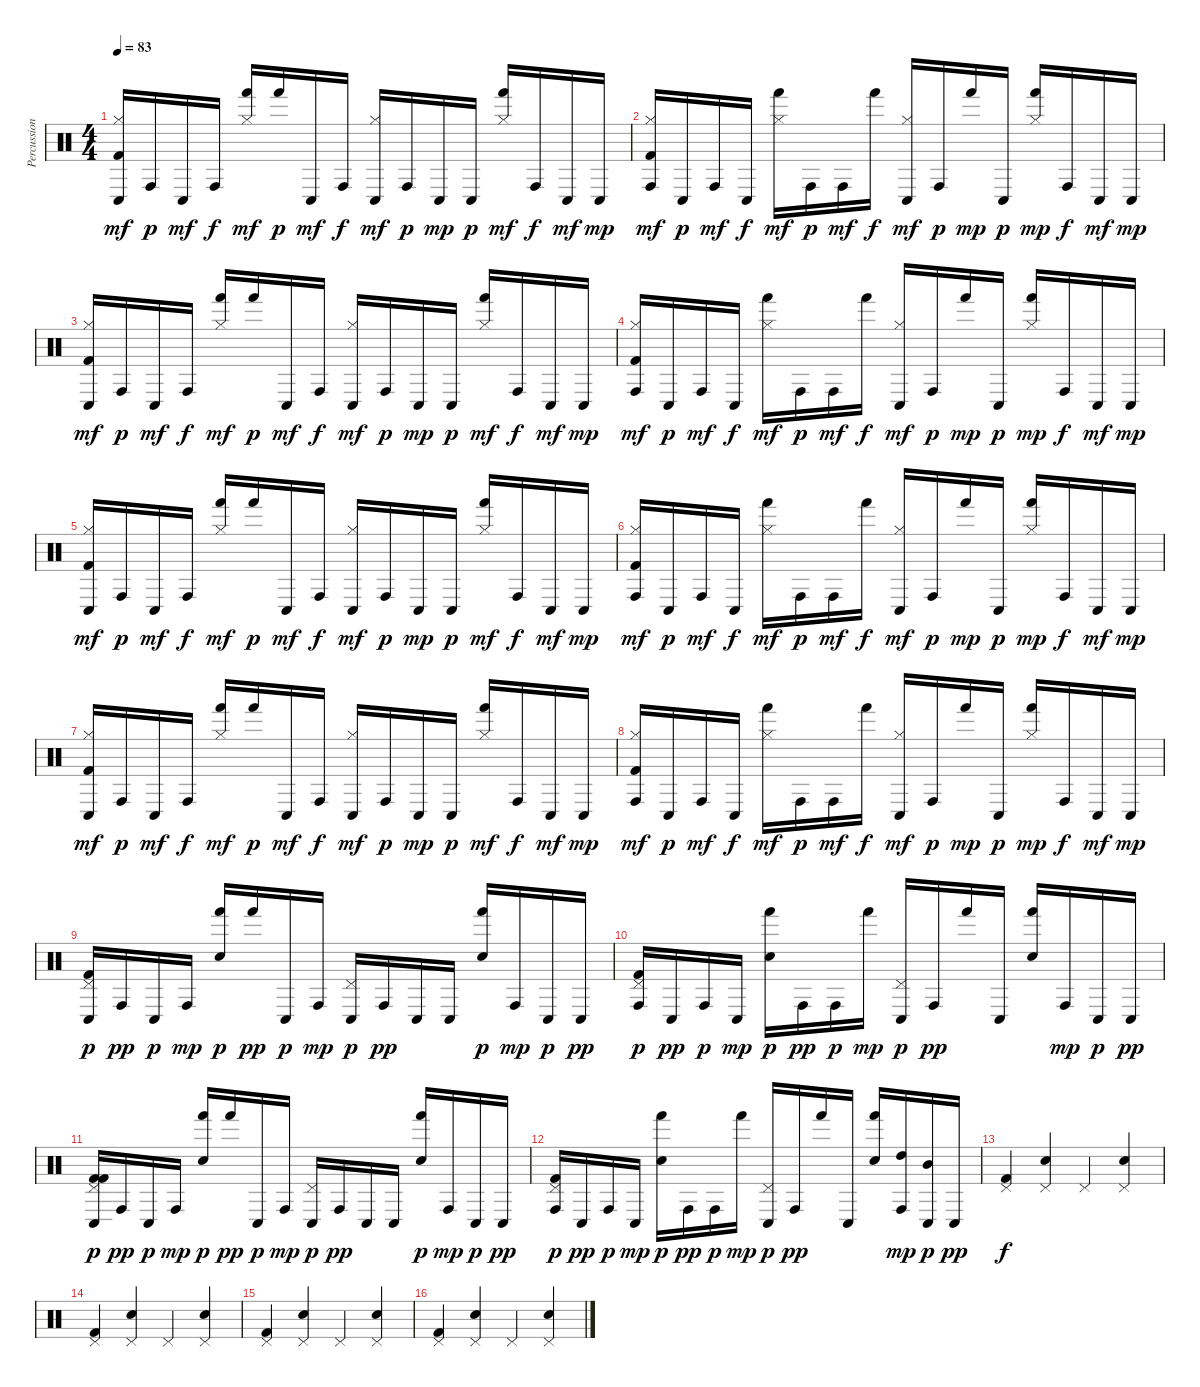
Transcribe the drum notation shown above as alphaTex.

\track ("Percussion" "Percussion") {instrument percussion}
\staff {score}
\articulation defaults
\ts (4 4)
\tempo 83
\clef neutral
\ks c
("Hi-Hat (closed)" "Conga low (hit)" "Kick (hit) 2").16{dy mf volume 8} "Conga high (hit)".16{dy p} "Conga low (hit)".16{dy mf} "Conga high (hit)".16{dy f} ("Hi-Hat (closed)" "Hand (hit)").16{dy mf} "Hand (hit)".16{dy p} "Conga low (hit)".16{dy mf} "Conga high (hit)".16{dy f} ("Hi-Hat (closed)" "Conga low (hit)").16{dy mf} "Conga high (hit)".16{dy p} "Conga low (hit)".16{dy mp} "Conga low (hit)".16{dy p} ("Hi-Hat (closed)" "Hand (hit)").16{dy mf} "Conga high (hit)".16{dy f} "Conga low (hit)".16{dy mf} "Conga low (hit)".16{dy mp} |
("Hi-Hat (closed)" "Conga high (hit)" "Kick (hit) 2").16{dy mf volume 8} "Conga low (hit)".16{dy p} "Conga high (hit)".16{dy mf} "Conga low (hit)".16{dy f} ("Hi-Hat (closed)" "Hand (hit)").16{dy mf} "Conga high (hit)".16{dy p} "Conga high (hit)".16{dy mf} "Hand (hit)".16{dy f} ("Hi-Hat (closed)" "Conga low (hit)").16{dy mf} "Conga high (hit)".16{dy p} "Hand (hit)".16{dy mp} "Conga low (hit)".16{dy p} ("Hi-Hat (closed)" "Hand (hit)").16{dy mp} "Conga high (hit)".16{dy f} "Conga low (hit)".16{dy mf} "Conga low (hit)".16{dy mp} |
("Hi-Hat (closed)" "Conga low (hit)" "Kick (hit) 2").16{dy mf volume 8} "Conga high (hit)".16{dy p} "Conga low (hit)".16{dy mf} "Conga high (hit)".16{dy f} ("Hi-Hat (closed)" "Hand (hit)").16{dy mf} "Hand (hit)".16{dy p} "Conga low (hit)".16{dy mf} "Conga high (hit)".16{dy f} ("Hi-Hat (closed)" "Conga low (hit)").16{dy mf} "Conga high (hit)".16{dy p} "Conga low (hit)".16{dy mp} "Conga low (hit)".16{dy p} ("Hi-Hat (closed)" "Hand (hit)").16{dy mf} "Conga high (hit)".16{dy f} "Conga low (hit)".16{dy mf} "Conga low (hit)".16{dy mp} |
("Hi-Hat (closed)" "Conga high (hit)" "Kick (hit) 2").16{dy mf volume 8} "Conga low (hit)".16{dy p} "Conga high (hit)".16{dy mf} "Conga low (hit)".16{dy f} ("Hi-Hat (closed)" "Hand (hit)").16{dy mf} "Conga high (hit)".16{dy p} "Conga high (hit)".16{dy mf} "Hand (hit)".16{dy f} ("Hi-Hat (closed)" "Conga low (hit)").16{dy mf} "Conga high (hit)".16{dy p} "Hand (hit)".16{dy mp} "Conga low (hit)".16{dy p} ("Hi-Hat (closed)" "Hand (hit)").16{dy mp} "Conga high (hit)".16{dy f} "Conga low (hit)".16{dy mf} "Conga low (hit)".16{dy mp} |
("Hi-Hat (closed)" "Conga low (hit)" "Kick (hit) 2").16{dy mf volume 8} "Conga high (hit)".16{dy p} "Conga low (hit)".16{dy mf} "Conga high (hit)".16{dy f} ("Hi-Hat (closed)" "Hand (hit)").16{dy mf} "Hand (hit)".16{dy p} "Conga low (hit)".16{dy mf} "Conga high (hit)".16{dy f} ("Hi-Hat (closed)" "Conga low (hit)").16{dy mf} "Conga high (hit)".16{dy p} "Conga low (hit)".16{dy mp} "Conga low (hit)".16{dy p} ("Hi-Hat (closed)" "Hand (hit)").16{dy mf} "Conga high (hit)".16{dy f} "Conga low (hit)".16{dy mf} "Conga low (hit)".16{dy mp} |
("Hi-Hat (closed)" "Conga high (hit)" "Kick (hit) 2").16{dy mf volume 8} "Conga low (hit)".16{dy p} "Conga high (hit)".16{dy mf} "Conga low (hit)".16{dy f} ("Hi-Hat (closed)" "Hand (hit)").16{dy mf} "Conga high (hit)".16{dy p} "Conga high (hit)".16{dy mf} "Hand (hit)".16{dy f} ("Hi-Hat (closed)" "Conga low (hit)").16{dy mf} "Conga high (hit)".16{dy p} "Hand (hit)".16{dy mp} "Conga low (hit)".16{dy p} ("Hi-Hat (closed)" "Hand (hit)").16{dy mp} "Conga high (hit)".16{dy f} "Conga low (hit)".16{dy mf} "Conga low (hit)".16{dy mp} |
("Hi-Hat (closed)" "Conga low (hit)" "Kick (hit) 2").16{dy mf volume 8} "Conga high (hit)".16{dy p} "Conga low (hit)".16{dy mf} "Conga high (hit)".16{dy f} ("Hi-Hat (closed)" "Hand (hit)").16{dy mf} "Hand (hit)".16{dy p} "Conga low (hit)".16{dy mf} "Conga high (hit)".16{dy f} ("Hi-Hat (closed)" "Conga low (hit)").16{dy mf} "Conga high (hit)".16{dy p} "Conga low (hit)".16{dy mp} "Conga low (hit)".16{dy p} ("Hi-Hat (closed)" "Hand (hit)").16{dy mf} "Conga high (hit)".16{dy f} "Conga low (hit)".16{dy mf} "Conga low (hit)".16{dy mp} |
("Hi-Hat (closed)" "Conga high (hit)" "Kick (hit) 2").16{dy mf volume 8} "Conga low (hit)".16{dy p} "Conga high (hit)".16{dy mf} "Conga low (hit)".16{dy f} ("Hi-Hat (closed)" "Hand (hit)").16{dy mf} "Conga high (hit)".16{dy p} "Conga high (hit)".16{dy mf} "Hand (hit)".16{dy f} ("Hi-Hat (closed)" "Conga low (hit)").16{dy mf} "Conga high (hit)".16{dy p} "Hand (hit)".16{dy mp} "Conga low (hit)".16{dy p} ("Hi-Hat (closed)" "Hand (hit)").16{dy mp} "Conga high (hit)".16{dy f} "Conga low (hit)".16{dy mf} "Conga low (hit)".16{dy mp} |
("Pedal Hi-Hat (hit)" "Kick (hit) 2" "Conga low (hit)").16{dy p} "Conga high (hit)".16{dy pp} "Conga low (hit)".16{dy p} "Conga high (hit)".16{dy mp} ("Electric Snare (hit)" "Hand (hit)").16{dy p} "Hand (hit)".16{dy pp} "Conga low (hit)".16{dy p} "Conga high (hit)".16{dy mp} ("Pedal Hi-Hat (hit)" "Conga low (hit)").16{dy p} "Conga high (hit)".16{dy pp} "Conga low (hit)".16 "Conga low (hit)".16 ("Electric Snare (hit)" "Hand (hit)").16{dy p} "Conga high (hit)".16{dy mp} "Conga low (hit)".16{dy p} "Conga low (hit)".16{dy pp} |
("Pedal Hi-Hat (hit)" "Kick (hit) 2" "Conga high (hit)").16{dy p} "Conga low (hit)".16{dy pp} "Conga high (hit)".16{dy p} "Conga low (hit)".16{dy mp} ("Electric Snare (hit)" "Hand (hit)").16{dy p} "Conga high (hit)".16{dy pp} "Conga high (hit)".16{dy p} "Hand (hit)".16{dy mp} ("Pedal Hi-Hat (hit)" "Conga low (hit)").16{dy p} "Conga high (hit)".16{dy pp} "Hand (hit)".16 "Conga low (hit)".16 ("Electric Snare (hit)" "Hand (hit)").16 "Conga high (hit)".16{dy mp} "Conga low (hit)".16{dy p} "Conga low (hit)".16{dy pp} |
("Pedal Hi-Hat (hit)" "Kick (hit) 2" "Conga low (hit)" "Kick (hit) 2").16{dy p} "Conga high (hit)".16{dy pp} "Conga low (hit)".16{dy p} "Conga high (hit)".16{dy mp} ("Electric Snare (hit)" "Hand (hit)").16{dy p} "Hand (hit)".16{dy pp} "Conga low (hit)".16{dy p} "Conga high (hit)".16{dy mp} ("Pedal Hi-Hat (hit)" "Conga low (hit)").16{dy p} "Conga high (hit)".16{dy pp} "Conga low (hit)".16 "Conga low (hit)".16 ("Electric Snare (hit)" "Hand (hit)").16{dy p} "Conga high (hit)".16{dy mp} "Conga low (hit)".16{dy p} "Conga low (hit)".16{dy pp} |
("Pedal Hi-Hat (hit)" "Kick (hit) 2" "Conga high (hit)").16{dy p} "Conga low (hit)".16{dy pp} "Conga high (hit)".16{dy p} "Conga low (hit)".16{dy mp} ("Electric Snare (hit)" "Hand (hit)").16{dy p} "Conga high (hit)".16{dy pp} "Conga high (hit)".16{dy p} "Hand (hit)".16{dy mp} ("Pedal Hi-Hat (hit)" "Conga low (hit)").16{dy p} "Conga high (hit)".16{dy pp} "Hand (hit)".16 "Conga low (hit)".16 ("Electric Snare (hit)" "Hand (hit)").16 ("High Tom (hit)" "Conga high (hit)").16{dy mp} ("Mid Tom (hit)" "Conga low (hit)").16{dy p} "Conga low (hit)".16{dy pp} |
("Pedal Hi-Hat (hit)" "Kick (hit) 2").4{dy f} ("Pedal Hi-Hat (hit)" "Electric Snare (hit)").4 "Pedal Hi-Hat (hit)".4 ("Pedal Hi-Hat (hit)" "Electric Snare (hit)").4 |
("Pedal Hi-Hat (hit)" "Kick (hit) 2").4 ("Pedal Hi-Hat (hit)" "Electric Snare (hit)").4 "Pedal Hi-Hat (hit)".4 ("Pedal Hi-Hat (hit)" "Electric Snare (hit)").4 |
("Pedal Hi-Hat (hit)" "Kick (hit) 2").4 ("Pedal Hi-Hat (hit)" "Electric Snare (hit)").4 "Pedal Hi-Hat (hit)".4 ("Pedal Hi-Hat (hit)" "Electric Snare (hit)").4 |
("Pedal Hi-Hat (hit)" "Kick (hit) 2").4 ("Pedal Hi-Hat (hit)" "Electric Snare (hit)").4 "Pedal Hi-Hat (hit)".4 ("Pedal Hi-Hat (hit)" "Electric Snare (hit)").4
